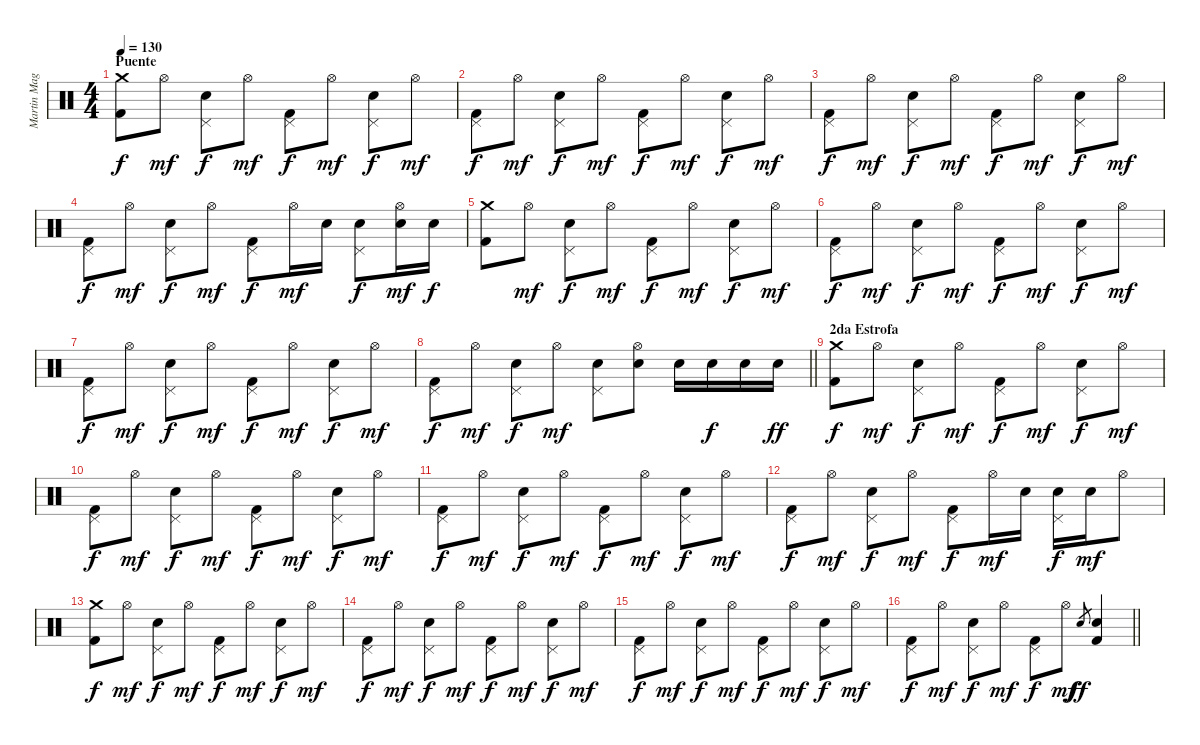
\track ("Martin Magliano" "Martin Mag") {instrument percussion}
\staff {score}
\articulation defaults
\ts (4 4)
\section ("" "Puente")
\tempo 130
\clef neutral
\ks c
("Crash medium (hit)" "Kick (hit) 2").8{dy f} "Hi-Hat (open)".8{dy mf} ("Pedal Hi-Hat (hit)" "Snare (hit) 2").8{dy f} "Hi-Hat (open)".8{dy mf} ("Pedal Hi-Hat (hit)" "Kick (hit) 2").8{dy f} "Hi-Hat (open)".8{dy mf} ("Pedal Hi-Hat (hit)" "Snare (hit) 2").8{dy f} "Hi-Hat (open)".8{dy mf} |
("Pedal Hi-Hat (hit)" "Kick (hit) 2").8{dy f} "Hi-Hat (open)".8{dy mf} ("Pedal Hi-Hat (hit)" "Snare (hit) 2").8{dy f} "Hi-Hat (open)".8{dy mf} ("Pedal Hi-Hat (hit)" "Kick (hit) 2").8{dy f} "Hi-Hat (open)".8{dy mf} ("Pedal Hi-Hat (hit)" "Snare (hit) 2").8{dy f} "Hi-Hat (open)".8{dy mf} |
("Pedal Hi-Hat (hit)" "Kick (hit) 2").8{dy f} "Hi-Hat (open)".8{dy mf} ("Pedal Hi-Hat (hit)" "Snare (hit) 2").8{dy f} "Hi-Hat (open)".8{dy mf} ("Pedal Hi-Hat (hit)" "Kick (hit) 2").8{dy f} "Hi-Hat (open)".8{dy mf} ("Pedal Hi-Hat (hit)" "Snare (hit) 2").8{dy f} "Hi-Hat (open)".8{dy mf} |
("Pedal Hi-Hat (hit)" "Kick (hit) 2").8{dy f} "Hi-Hat (open)".8{dy mf} ("Pedal Hi-Hat (hit)" "Snare (hit) 2").8{dy f} "Hi-Hat (open)".8{dy mf} ("Pedal Hi-Hat (hit)" "Kick (hit) 2").8{dy f} "Hi-Hat (open)".16{dy mf} "Snare (hit) 2".16 ("Pedal Hi-Hat (hit)" "Snare (hit) 2").8{dy f} ("Hi-Hat (open)" "Snare (hit) 2").16{dy mf} "Snare (hit) 2".16{dy f} |
("Crash medium (hit)" "Kick (hit) 2").8 "Hi-Hat (open)".8{dy mf} ("Pedal Hi-Hat (hit)" "Snare (hit) 2").8{dy f} "Hi-Hat (open)".8{dy mf} ("Pedal Hi-Hat (hit)" "Kick (hit) 2").8{dy f} "Hi-Hat (open)".8{dy mf} ("Pedal Hi-Hat (hit)" "Snare (hit) 2").8{dy f} "Hi-Hat (open)".8{dy mf} |
("Pedal Hi-Hat (hit)" "Kick (hit) 2").8{dy f} "Hi-Hat (open)".8{dy mf} ("Pedal Hi-Hat (hit)" "Snare (hit) 2").8{dy f} "Hi-Hat (open)".8{dy mf} ("Pedal Hi-Hat (hit)" "Kick (hit) 2").8{dy f} "Hi-Hat (open)".8{dy mf} ("Pedal Hi-Hat (hit)" "Snare (hit) 2").8{dy f} "Hi-Hat (open)".8{dy mf} |
("Pedal Hi-Hat (hit)" "Kick (hit) 2").8{dy f} "Hi-Hat (open)".8{dy mf} ("Pedal Hi-Hat (hit)" "Snare (hit) 2").8{dy f} "Hi-Hat (open)".8{dy mf} ("Pedal Hi-Hat (hit)" "Kick (hit) 2").8{dy f} "Hi-Hat (open)".8{dy mf} ("Pedal Hi-Hat (hit)" "Snare (hit) 2").8{dy f} "Hi-Hat (open)".8{dy mf} |
\barLineRight lightlight
("Pedal Hi-Hat (hit)" "Kick (hit) 2").8{dy f} "Hi-Hat (open)".8{dy mf} ("Pedal Hi-Hat (hit)" "Snare (hit) 2").8{dy f} "Hi-Hat (open)".8{dy mf} ("Pedal Hi-Hat (hit)" "Snare (hit) 2").8 ("Hi-Hat (open)" "Snare (hit) 2").8 "Snare (hit) 2".16 "Snare (hit) 2".16{dy f} "Snare (hit) 2".16 "Snare (hit) 2".16{dy ff} |
\section ("" "2da Estrofa")
("Crash medium (hit)" "Kick (hit) 2").8{dy f} "Hi-Hat (open)".8{dy mf} ("Pedal Hi-Hat (hit)" "Snare (hit) 2").8{dy f} "Hi-Hat (open)".8{dy mf} ("Pedal Hi-Hat (hit)" "Kick (hit) 2").8{dy f} "Hi-Hat (open)".8{dy mf} ("Pedal Hi-Hat (hit)" "Snare (hit) 2").8{dy f} "Hi-Hat (open)".8{dy mf} |
("Pedal Hi-Hat (hit)" "Kick (hit) 2").8{dy f} "Hi-Hat (open)".8{dy mf} ("Pedal Hi-Hat (hit)" "Snare (hit) 2").8{dy f} "Hi-Hat (open)".8{dy mf} ("Pedal Hi-Hat (hit)" "Kick (hit) 2").8{dy f} "Hi-Hat (open)".8{dy mf} ("Pedal Hi-Hat (hit)" "Snare (hit) 2").8{dy f} "Hi-Hat (open)".8{dy mf} |
("Pedal Hi-Hat (hit)" "Kick (hit) 2").8{dy f} "Hi-Hat (open)".8{dy mf} ("Pedal Hi-Hat (hit)" "Snare (hit) 2").8{dy f} "Hi-Hat (open)".8{dy mf} ("Pedal Hi-Hat (hit)" "Kick (hit) 2").8{dy f} "Hi-Hat (open)".8{dy mf} ("Pedal Hi-Hat (hit)" "Snare (hit) 2").8{dy f} "Hi-Hat (open)".8{dy mf} |
("Pedal Hi-Hat (hit)" "Kick (hit) 2").8{dy f} "Hi-Hat (open)".8{dy mf} ("Pedal Hi-Hat (hit)" "Snare (hit) 2").8{dy f} "Hi-Hat (open)".8{dy mf} ("Pedal Hi-Hat (hit)" "Kick (hit) 2").8{dy f} "Hi-Hat (open)".16{dy mf} "Snare (hit) 2".16 ("Pedal Hi-Hat (hit)" "Snare (hit) 2").16{dy f} "Snare (hit) 2".16{dy mf} "Hi-Hat (open)".8 |
("Crash medium (hit)" "Kick (hit) 2").8{dy f} "Hi-Hat (open)".8{dy mf} ("Pedal Hi-Hat (hit)" "Snare (hit) 2").8{dy f} "Hi-Hat (open)".8{dy mf} ("Pedal Hi-Hat (hit)" "Kick (hit) 2").8{dy f} "Hi-Hat (open)".8{dy mf} ("Pedal Hi-Hat (hit)" "Snare (hit) 2").8{dy f} "Hi-Hat (open)".8{dy mf} |
("Pedal Hi-Hat (hit)" "Kick (hit) 2").8{dy f} "Hi-Hat (open)".8{dy mf} ("Pedal Hi-Hat (hit)" "Snare (hit) 2").8{dy f} "Hi-Hat (open)".8{dy mf} ("Pedal Hi-Hat (hit)" "Kick (hit) 2").8{dy f} "Hi-Hat (open)".8{dy mf} ("Pedal Hi-Hat (hit)" "Snare (hit) 2").8{dy f} "Hi-Hat (open)".8{dy mf} |
("Pedal Hi-Hat (hit)" "Kick (hit) 2").8{dy f} "Hi-Hat (open)".8{dy mf} ("Pedal Hi-Hat (hit)" "Snare (hit) 2").8{dy f} "Hi-Hat (open)".8{dy mf} ("Pedal Hi-Hat (hit)" "Kick (hit) 2").8{dy f} "Hi-Hat (open)".8{dy mf} ("Pedal Hi-Hat (hit)" "Snare (hit) 2").8{dy f} "Hi-Hat (open)".8{dy mf} |
\barLineRight lightlight
("Pedal Hi-Hat (hit)" "Kick (hit) 2").8{dy f} "Hi-Hat (open)".8{dy mf} ("Pedal Hi-Hat (hit)" "Snare (hit) 2").8{dy f} "Hi-Hat (open)".8{dy mf} ("Pedal Hi-Hat (hit)" "Kick (hit) 2").8{dy f} "Hi-Hat (open)".8{dy mf} "Snare (hit) 2".8{gr dy ff} ("Snare (hit) 2" "Kick (hit) 2").4
